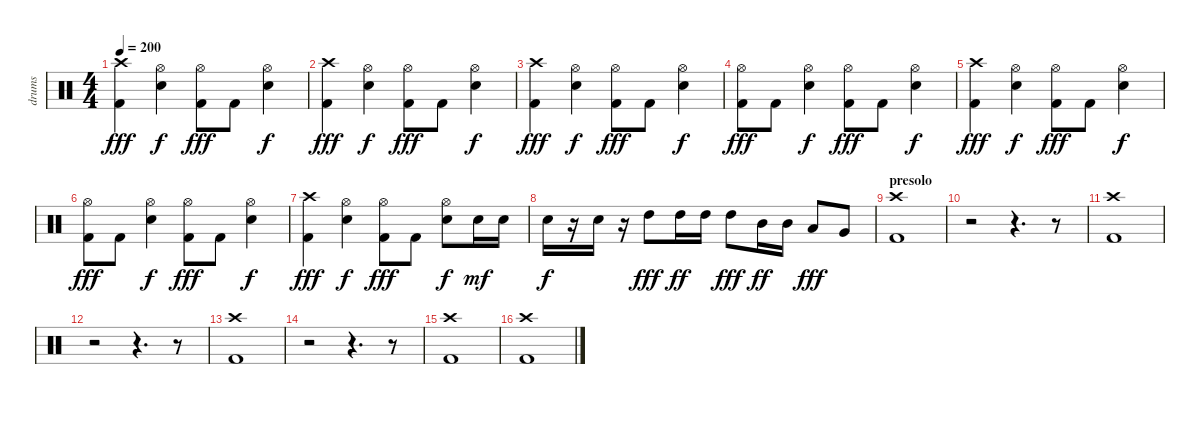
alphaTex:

\track ("drums" "drums") {instrument percussion}
\staff {score}
\articulation defaults
\ts (4 4)
\tempo 200
\clef neutral
\ks c
("Crash high (hit)" "Kick (hit) 2").4{dy fff} ("Hi-Hat (open)" "Snare (hit) 2").4{dy f} ("Hi-Hat (open)" "Kick (hit) 2").8{dy fff} "Kick (hit) 2".8 ("Hi-Hat (open)" "Snare (hit) 2").4{dy f} |
("Crash high (hit)" "Kick (hit) 2").4{dy fff} ("Hi-Hat (open)" "Snare (hit) 2").4{dy f} ("Hi-Hat (open)" "Kick (hit) 2").8{dy fff} "Kick (hit) 2".8 ("Hi-Hat (open)" "Snare (hit) 2").4{dy f} |
("Crash high (hit)" "Kick (hit) 2").4{dy fff} ("Hi-Hat (open)" "Snare (hit) 2").4{dy f} ("Hi-Hat (open)" "Kick (hit) 2").8{dy fff} "Kick (hit) 2".8 ("Hi-Hat (open)" "Snare (hit) 2").4{dy f} |
("Hi-Hat (open)" "Kick (hit) 2").8{dy fff} "Kick (hit) 2".8 ("Hi-Hat (open)" "Snare (hit) 2").4{dy f} ("Hi-Hat (open)" "Kick (hit) 2").8{dy fff} "Kick (hit) 2".8 ("Hi-Hat (open)" "Snare (hit) 2").4{dy f} |
("Crash high (hit)" "Kick (hit) 2").4{dy fff} ("Hi-Hat (open)" "Snare (hit) 2").4{dy f} ("Hi-Hat (open)" "Kick (hit) 2").8{dy fff} "Kick (hit) 2".8 ("Hi-Hat (open)" "Snare (hit) 2").4{dy f} |
("Hi-Hat (open)" "Kick (hit) 2").8{dy fff} "Kick (hit) 2".8 ("Hi-Hat (open)" "Snare (hit) 2").4{dy f} ("Hi-Hat (open)" "Kick (hit) 2").8{dy fff} "Kick (hit) 2".8 ("Hi-Hat (open)" "Snare (hit) 2").4{dy f} |
("Crash high (hit)" "Kick (hit) 2").4{dy fff} ("Hi-Hat (open)" "Snare (hit) 2").4{dy f} ("Hi-Hat (open)" "Kick (hit) 2").8{dy fff} "Kick (hit) 2".8 ("Hi-Hat (open)" "Snare (hit) 2").8{dy f} "Snare (hit) 2".16{dy mf} "Snare (hit) 2".16 |
"Snare (hit) 2".16{dy f} r.16 "Snare (hit) 2".16 r.16 "High Tom (hit)".8{dy fff} "High Tom (hit)".16{dy ff} "High Tom (hit)".16 "High Tom (hit)".8{dy fff} "Mid Tom (hit)".16{dy ff} "Mid Tom (hit)".16 "Low Tom (hit)".8{dy fff} "Very Low Tom (hit)".8 |
\section ("" "presolo")
("Crash high (hit)" "Kick (hit) 2").1 |
r.2 r.4{d} r.8 |
("Crash high (hit)" "Kick (hit) 2").1 |
r.2 r.4{d} r.8 |
("Crash high (hit)" "Kick (hit) 2").1 |
r.2 r.4{d} r.8 |
("Crash high (hit)" "Kick (hit) 2").1 |
("Crash high (hit)" "Kick (hit) 2").1
